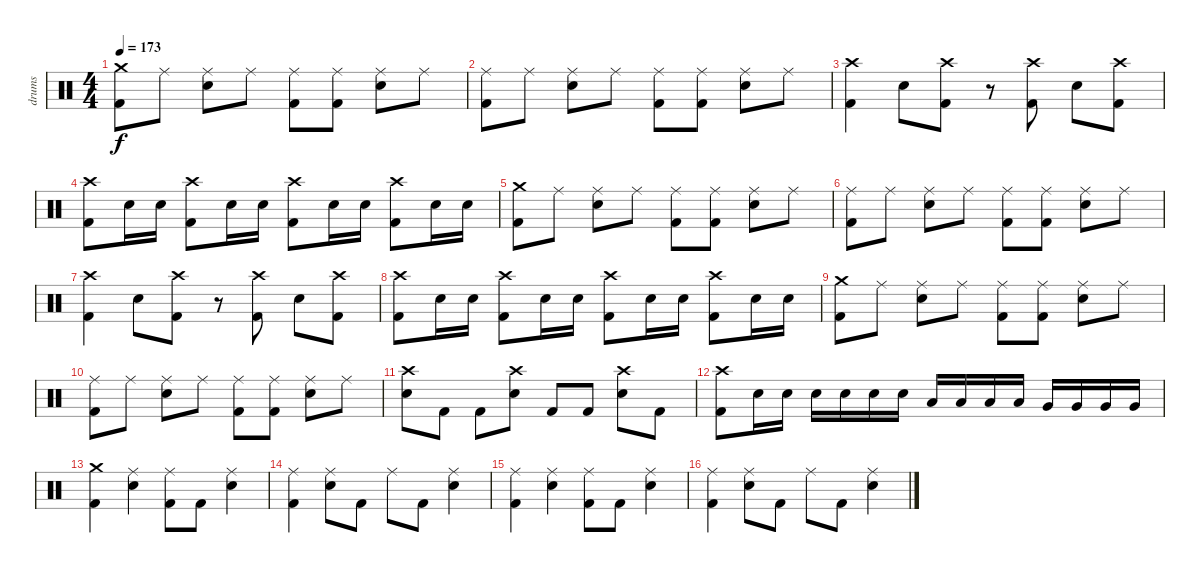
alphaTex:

\track ("drums" "drums") {instrument percussion}
\staff {score}
\articulation defaults
\ts (4 4)
\tempo 173
\clef neutral
\ks c
("Crash medium (hit)" "Kick (hit) 2").8{dy f} "Ride (middle)".8 ("Ride (middle)" "Electric Snare (hit)").8 "Ride (middle)".8 ("Ride (middle)" "Kick (hit) 2").8 ("Ride (middle)" "Kick (hit) 2").8 ("Ride (middle)" "Electric Snare (hit)").8 "Ride (middle)".8 |
("Ride (middle)" "Kick (hit) 2").8 "Ride (middle)".8 ("Ride (middle)" "Electric Snare (hit)").8 "Ride (middle)".8 ("Ride (middle)" "Kick (hit) 2").8 ("Ride (middle)" "Kick (hit) 2").8 ("Ride (middle)" "Electric Snare (hit)").8 "Ride (middle)".8 |
("Crash high (hit)" "Kick (hit) 2").4 "Electric Snare (hit)".8 ("Crash high (hit)" "Kick (hit) 2").8 r.8 ("Crash high (hit)" "Kick (hit) 2").8 "Electric Snare (hit)".8 ("Crash high (hit)" "Kick (hit) 2").8 |
("Crash high (hit)" "Kick (hit) 2").8 "Electric Snare (hit)".16 "Electric Snare (hit)".16 ("Crash high (hit)" "Kick (hit) 2").8 "Electric Snare (hit)".16 "Electric Snare (hit)".16 ("Crash high (hit)" "Kick (hit) 2").8 "Electric Snare (hit)".16 "Electric Snare (hit)".16 ("Crash high (hit)" "Kick (hit) 2").8 "Electric Snare (hit)".16 "Electric Snare (hit)".16 |
("Crash medium (hit)" "Kick (hit) 2").8 "Ride (middle)".8 ("Ride (middle)" "Electric Snare (hit)").8 "Ride (middle)".8 ("Ride (middle)" "Kick (hit) 2").8 ("Ride (middle)" "Kick (hit) 2").8 ("Ride (middle)" "Electric Snare (hit)").8 "Ride (middle)".8 |
("Ride (middle)" "Kick (hit) 2").8 "Ride (middle)".8 ("Ride (middle)" "Electric Snare (hit)").8 "Ride (middle)".8 ("Ride (middle)" "Kick (hit) 2").8 ("Ride (middle)" "Kick (hit) 2").8 ("Ride (middle)" "Electric Snare (hit)").8 "Ride (middle)".8 |
("Crash high (hit)" "Kick (hit) 2").4 "Electric Snare (hit)".8 ("Crash high (hit)" "Kick (hit) 2").8 r.8 ("Crash high (hit)" "Kick (hit) 2").8 "Electric Snare (hit)".8 ("Crash high (hit)" "Kick (hit) 2").8 |
("Crash high (hit)" "Kick (hit) 2").8 "Electric Snare (hit)".16 "Electric Snare (hit)".16 ("Crash high (hit)" "Kick (hit) 2").8 "Electric Snare (hit)".16 "Electric Snare (hit)".16 ("Crash high (hit)" "Kick (hit) 2").8 "Electric Snare (hit)".16 "Electric Snare (hit)".16 ("Crash high (hit)" "Kick (hit) 2").8 "Electric Snare (hit)".16 "Electric Snare (hit)".16 |
("Crash medium (hit)" "Kick (hit) 2").8 "Ride (middle)".8 ("Ride (middle)" "Electric Snare (hit)").8 "Ride (middle)".8 ("Ride (middle)" "Kick (hit) 2").8 ("Ride (middle)" "Kick (hit) 2").8 ("Ride (middle)" "Electric Snare (hit)").8 "Ride (middle)".8 |
("Ride (middle)" "Kick (hit) 2").8 "Ride (middle)".8 ("Ride (middle)" "Electric Snare (hit)").8 "Ride (middle)".8 ("Ride (middle)" "Kick (hit) 2").8 ("Ride (middle)" "Kick (hit) 2").8 ("Ride (middle)" "Electric Snare (hit)").8 "Ride (middle)".8 |
("Crash high (hit)" "Electric Snare (hit)").8 "Kick (hit) 2".8 "Kick (hit) 2".8 ("Crash high (hit)" "Electric Snare (hit)").8 "Kick (hit) 2".8 "Kick (hit) 2".8 ("Crash high (hit)" "Electric Snare (hit)").8 "Kick (hit) 2".8 |
("Crash high (hit)" "Kick (hit) 2").8 "Electric Snare (hit)".16 "Electric Snare (hit)".16 "Electric Snare (hit)".16 "Electric Snare (hit)".16 "Electric Snare (hit)".16 "Electric Snare (hit)".16 "Low Tom (hit)".16 "Low Tom (hit)".16 "Low Tom (hit)".16 "Low Tom (hit)".16 "Very Low Tom (hit)".16 "Very Low Tom (hit)".16 "Very Low Tom (hit)".16 "Very Low Tom (hit)".16 |
("Crash medium (hit)" "Kick (hit) 2").4 ("Ride (middle)" "Electric Snare (hit)").4 ("Ride (middle)" "Kick (hit) 2").8 "Kick (hit) 2".8 ("Ride (middle)" "Electric Snare (hit)").4 |
("Ride (middle)" "Kick (hit) 2").4 ("Ride (middle)" "Electric Snare (hit)").8 "Kick (hit) 2".8 "Ride (middle)".8 "Kick (hit) 2".8 ("Ride (middle)" "Electric Snare (hit)").4 |
("Ride (middle)" "Kick (hit) 2").4 ("Ride (middle)" "Electric Snare (hit)").4 ("Ride (middle)" "Kick (hit) 2").8 "Kick (hit) 2".8 ("Ride (middle)" "Electric Snare (hit)").4 |
("Ride (middle)" "Kick (hit) 2").4 ("Ride (middle)" "Electric Snare (hit)").8 "Kick (hit) 2".8 "Ride (middle)".8 "Kick (hit) 2".8 ("Ride (middle)" "Electric Snare (hit)").4
